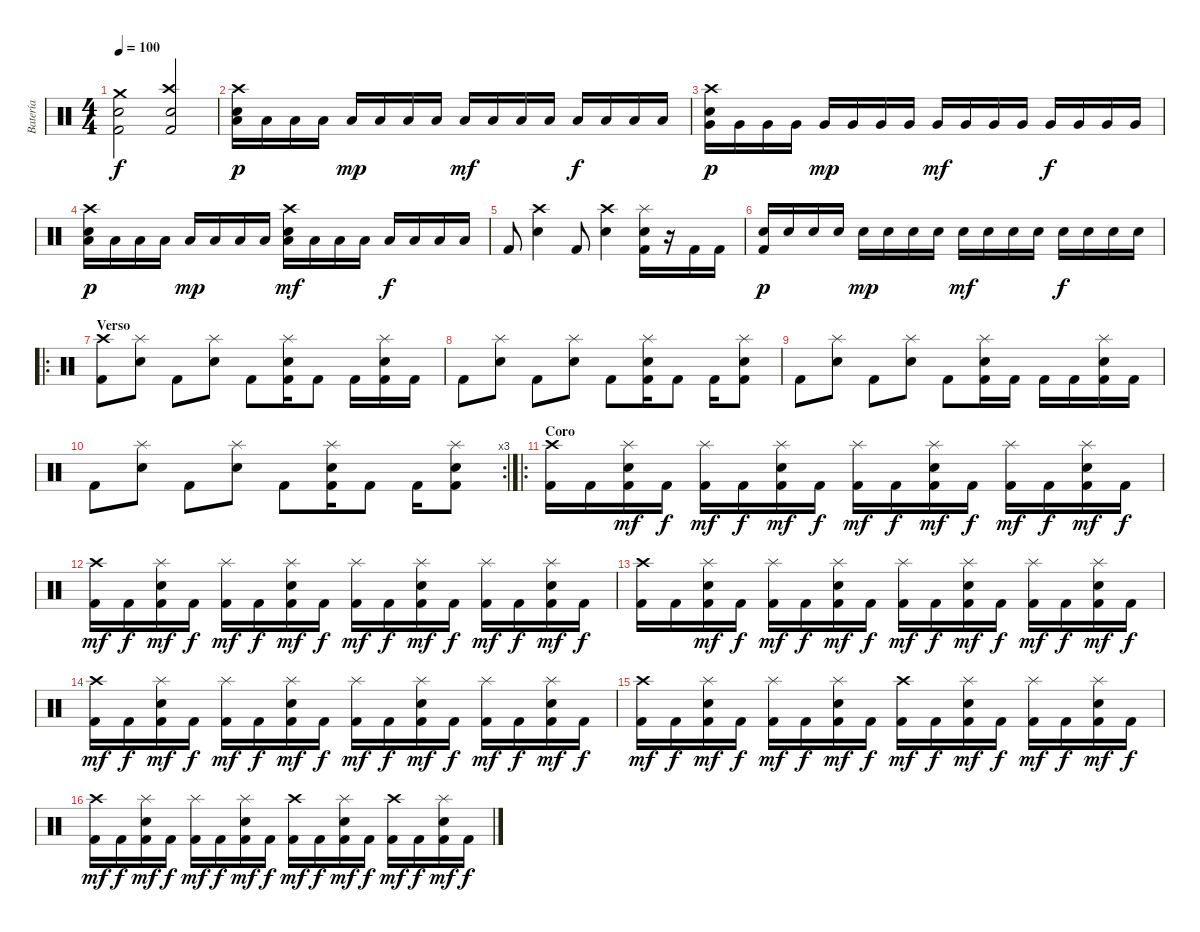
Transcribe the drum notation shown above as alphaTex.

\track ("Batería" "Batería") {instrument percussion}
\staff {score}
\articulation defaults
\ts (4 4)
\tempo 100
\clef neutral
\ks c
("Crash medium (hit)" "Electric Snare (hit)" "Kick (hit) 2").2{dy f} ("Crash high (hit)" "Snare (hit) 2" "Kick (hit) 2").2 |
("Crash high (hit)" "Snare (hit) 2" "Low Floor Tom (hit)").16{dy p} "Low Floor Tom (hit)".16 "Low Floor Tom (hit)".16 "Low Floor Tom (hit)".16 "Low Floor Tom (hit)".16{dy mp} "Low Floor Tom (hit)".16 "Low Floor Tom (hit)".16 "Low Floor Tom (hit)".16 "Low Floor Tom (hit)".16{dy mf} "Low Floor Tom (hit)".16 "Low Floor Tom (hit)".16 "Low Floor Tom (hit)".16 "Low Floor Tom (hit)".16{dy f} "Low Floor Tom (hit)".16 "Low Floor Tom (hit)".16 "Low Floor Tom (hit)".16 |
("Crash high (hit)" "Snare (hit) 2" "Very Low Tom (hit)").16{dy p} "Very Low Tom (hit)".16 "Very Low Tom (hit)".16 "Very Low Tom (hit)".16 "Very Low Tom (hit)".16{dy mp} "Very Low Tom (hit)".16 "Very Low Tom (hit)".16 "Very Low Tom (hit)".16 "Very Low Tom (hit)".16{dy mf} "Very Low Tom (hit)".16 "Very Low Tom (hit)".16 "Very Low Tom (hit)".16 "Very Low Tom (hit)".16{dy f} "Very Low Tom (hit)".16 "Very Low Tom (hit)".16 "Very Low Tom (hit)".16 |
("Crash high (hit)" "Snare (hit) 2" "Low Tom (hit)").16{dy p} "Low Tom (hit)".16 "Low Tom (hit)".16 "Low Tom (hit)".16 "Low Tom (hit)".16{dy mp} "Low Tom (hit)".16 "Low Tom (hit)".16 "Low Tom (hit)".16 ("Crash high (hit)" "Snare (hit) 2" "Low Tom (hit)").16{dy mf} "Low Tom (hit)".16 "Low Tom (hit)".16 "Low Tom (hit)".16 "Low Tom (hit)".16{dy f} "Low Tom (hit)".16 "Low Tom (hit)".16 "Low Tom (hit)".16 |
"Kick (hit) 2".8 ("Crash high (hit)" "Snare (hit) 2").4 "Kick (hit) 2".8 ("Crash high (hit)" "Snare (hit) 2").4 ("Splash (hit)" "Snare (hit) 2" "Kick (hit) 2").16 r.16 "Kick (hit) 2".16 "Kick (hit) 2".16 |
("Snare (hit) 2" "Kick (hit) 2").16{dy p} "Snare (hit) 2".16 "Snare (hit) 2".16 "Snare (hit) 2".16 "Snare (hit) 2".16{dy mp} "Snare (hit) 2".16 "Snare (hit) 2".16 "Snare (hit) 2".16 "Snare (hit) 2".16{dy mf} "Snare (hit) 2".16 "Snare (hit) 2".16 "Snare (hit) 2".16 "Snare (hit) 2".16{dy f} "Snare (hit) 2".16 "Snare (hit) 2".16 "Snare (hit) 2".16 |
\ro
\section ("" "Verso")
("Crash high (hit)" "Kick (hit) 2").8 ("Splash (hit)" "Snare (hit) 2").8 "Kick (hit) 2".8 ("Splash (hit)" "Snare (hit) 2").8 "Kick (hit) 2".8 ("Splash (hit)" "Snare (hit) 2" "Kick (hit) 2").16 "Kick (hit) 2".8 "Kick (hit) 2".16 ("Splash (hit)" "Snare (hit) 2" "Kick (hit) 2").16 "Kick (hit) 2".16 |
"Kick (hit) 2".8 ("Splash (hit)" "Snare (hit) 2").8 "Kick (hit) 2".8 ("Splash (hit)" "Snare (hit) 2").8 "Kick (hit) 2".8 ("Splash (hit)" "Snare (hit) 2" "Kick (hit) 2").16 "Kick (hit) 2".8 "Kick (hit) 2".16 ("Splash (hit)" "Snare (hit) 2" "Kick (hit) 2").8 |
"Kick (hit) 2".8 ("Splash (hit)" "Snare (hit) 2").8 "Kick (hit) 2".8 ("Splash (hit)" "Snare (hit) 2").8 "Kick (hit) 2".8 ("Splash (hit)" "Snare (hit) 2" "Kick (hit) 2").16 "Kick (hit) 2".16 "Kick (hit) 2".16 "Kick (hit) 2".16 ("Splash (hit)" "Snare (hit) 2" "Kick (hit) 2").16 "Kick (hit) 2".16 |
\rc 3 "Kick (hit) 2".8
("Splash (hit)" "Snare (hit) 2").8 "Kick (hit) 2".8 ("Splash (hit)" "Snare (hit) 2").8 "Kick (hit) 2".8 ("Splash (hit)" "Snare (hit) 2" "Kick (hit) 2").16 "Kick (hit) 2".8 "Kick (hit) 2".16 ("Splash (hit)" "Snare (hit) 2" "Kick (hit) 2").8 |
\ro
\section ("" "Coro")
("Crash high (hit)" "Kick (hit) 2").16 "Kick (hit) 2".16 ("Splash (hit)" "Snare (hit) 2" "Kick (hit) 2").16{dy mf} "Kick (hit) 2".16{dy f} ("Splash (hit)" "Kick (hit) 2").16{dy mf} "Kick (hit) 2".16{dy f} ("Splash (hit)" "Snare (hit) 2" "Kick (hit) 2").16{dy mf} "Kick (hit) 2".16{dy f} ("Splash (hit)" "Kick (hit) 2").16{dy mf} "Kick (hit) 2".16{dy f} ("Splash (hit)" "Snare (hit) 2" "Kick (hit) 2").16{dy mf} "Kick (hit) 2".16{dy f} ("Splash (hit)" "Kick (hit) 2").16{dy mf} "Kick (hit) 2".16{dy f} ("Splash (hit)" "Snare (hit) 2" "Kick (hit) 2").16{dy mf} "Kick (hit) 2".16{dy f} |
("Crash high (hit)" "Kick (hit) 2").16{dy mf} "Kick (hit) 2".16{dy f} ("Splash (hit)" "Snare (hit) 2" "Kick (hit) 2").16{dy mf} "Kick (hit) 2".16{dy f} ("Splash (hit)" "Kick (hit) 2").16{dy mf} "Kick (hit) 2".16{dy f} ("Splash (hit)" "Snare (hit) 2" "Kick (hit) 2").16{dy mf} "Kick (hit) 2".16{dy f} ("Splash (hit)" "Kick (hit) 2").16{dy mf} "Kick (hit) 2".16{dy f} ("Splash (hit)" "Snare (hit) 2" "Kick (hit) 2").16{dy mf} "Kick (hit) 2".16{dy f} ("Splash (hit)" "Kick (hit) 2").16{dy mf} "Kick (hit) 2".16{dy f} ("Splash (hit)" "Snare (hit) 2" "Kick (hit) 2").16{dy mf} "Kick (hit) 2".16{dy f} |
("Crash high (hit)" "Kick (hit) 2").16 "Kick (hit) 2".16 ("Splash (hit)" "Snare (hit) 2" "Kick (hit) 2").16{dy mf} "Kick (hit) 2".16{dy f} ("Splash (hit)" "Kick (hit) 2").16{dy mf} "Kick (hit) 2".16{dy f} ("Splash (hit)" "Snare (hit) 2" "Kick (hit) 2").16{dy mf} "Kick (hit) 2".16{dy f} ("Splash (hit)" "Kick (hit) 2").16{dy mf} "Kick (hit) 2".16{dy f} ("Splash (hit)" "Snare (hit) 2" "Kick (hit) 2").16{dy mf} "Kick (hit) 2".16{dy f} ("Splash (hit)" "Kick (hit) 2").16{dy mf} "Kick (hit) 2".16{dy f} ("Splash (hit)" "Snare (hit) 2" "Kick (hit) 2").16{dy mf} "Kick (hit) 2".16{dy f} |
("Crash high (hit)" "Kick (hit) 2").16{dy mf} "Kick (hit) 2".16{dy f} ("Splash (hit)" "Snare (hit) 2" "Kick (hit) 2").16{dy mf} "Kick (hit) 2".16{dy f} ("Splash (hit)" "Kick (hit) 2").16{dy mf} "Kick (hit) 2".16{dy f} ("Splash (hit)" "Snare (hit) 2" "Kick (hit) 2").16{dy mf} "Kick (hit) 2".16{dy f} ("Splash (hit)" "Kick (hit) 2").16{dy mf} "Kick (hit) 2".16{dy f} ("Splash (hit)" "Snare (hit) 2" "Kick (hit) 2").16{dy mf} "Kick (hit) 2".16{dy f} ("Splash (hit)" "Kick (hit) 2").16{dy mf} "Kick (hit) 2".16{dy f} ("Splash (hit)" "Snare (hit) 2" "Kick (hit) 2").16{dy mf} "Kick (hit) 2".16{dy f} |
("Crash high (hit)" "Kick (hit) 2").16{dy mf} "Kick (hit) 2".16{dy f} ("Splash (hit)" "Snare (hit) 2" "Kick (hit) 2").16{dy mf} "Kick (hit) 2".16{dy f} ("Splash (hit)" "Kick (hit) 2").16{dy mf} "Kick (hit) 2".16{dy f} ("Splash (hit)" "Snare (hit) 2" "Kick (hit) 2").16{dy mf} "Kick (hit) 2".16{dy f} ("Crash high (hit)" "Kick (hit) 2").16{dy mf} "Kick (hit) 2".16{dy f} ("Splash (hit)" "Snare (hit) 2" "Kick (hit) 2").16{dy mf} "Kick (hit) 2".16{dy f} ("Splash (hit)" "Kick (hit) 2").16{dy mf} "Kick (hit) 2".16{dy f} ("Splash (hit)" "Snare (hit) 2" "Kick (hit) 2").16{dy mf} "Kick (hit) 2".16{dy f} |
("Crash high (hit)" "Kick (hit) 2").16{dy mf} "Kick (hit) 2".16{dy f} ("Splash (hit)" "Snare (hit) 2" "Kick (hit) 2").16{dy mf} "Kick (hit) 2".16{dy f} ("Splash (hit)" "Kick (hit) 2").16{dy mf} "Kick (hit) 2".16{dy f} ("Splash (hit)" "Snare (hit) 2" "Kick (hit) 2").16{dy mf} "Kick (hit) 2".16{dy f} ("Crash high (hit)" "Kick (hit) 2").16{dy mf} "Kick (hit) 2".16{dy f} ("Splash (hit)" "Snare (hit) 2" "Kick (hit) 2").16{dy mf} "Kick (hit) 2".16{dy f} ("Crash high (hit)" "Kick (hit) 2").16{dy mf} "Kick (hit) 2".16{dy f} ("Splash (hit)" "Snare (hit) 2" "Kick (hit) 2").16{dy mf} "Kick (hit) 2".16{dy f}
